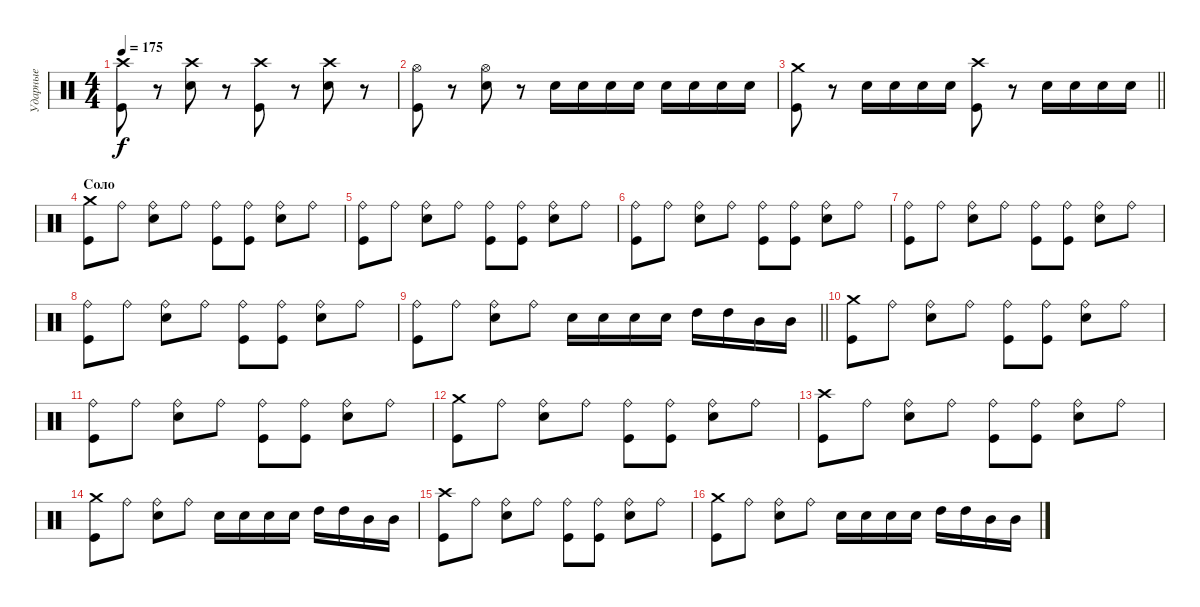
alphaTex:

\track ("Ударные" "Ударные") {instrument percussion}
\staff {score}
\articulation defaults
\ts (4 4)
\tempo 175
\clef neutral
\ks c
("Crash high (hit)" "Kick (hit)").8{dy f} r.8 ("Crash high (hit)" "Electric Snare (hit)").8 r.8 ("Crash high (hit)" "Kick (hit)").8 r.8 ("Crash high (hit)" "Electric Snare (hit)").8 r.8 |
("Hi-Hat (open)" "Kick (hit)").8 r.8 ("Hi-Hat (open)" "Electric Snare (hit)").8 r.8 "Electric Snare (hit)".16 "Electric Snare (hit)".16 "Electric Snare (hit)".16 "Electric Snare (hit)".16 "Electric Snare (hit)".16 "Electric Snare (hit)".16 "Electric Snare (hit)".16 "Electric Snare (hit)".16 |
\barLineRight lightlight
("Crash medium (hit)" "Kick (hit)").8 r.8 "Electric Snare (hit)".16 "Electric Snare (hit)".16 "Electric Snare (hit)".16 "Electric Snare (hit)".16 ("Crash high (hit)" "Kick (hit)").8 r.8 "Electric Snare (hit)".16 "Electric Snare (hit)".16 "Electric Snare (hit)".16 "Electric Snare (hit)".16 |
\section ("" "Соло")
("Crash medium (hit)" "Kick (hit)").8 "Ride (bell)".8 ("Ride (bell)" "Electric Snare (hit)").8 "Ride (bell)".8 ("Ride (bell)" "Kick (hit)").8 ("Ride (bell)" "Kick (hit)").8 ("Ride (bell)" "Electric Snare (hit)").8 "Ride (bell)".8 |
("Ride (bell)" "Kick (hit)").8 "Ride (bell)".8 ("Ride (bell)" "Electric Snare (hit)").8 "Ride (bell)".8 ("Ride (bell)" "Kick (hit)").8 ("Ride (bell)" "Kick (hit)").8 ("Ride (bell)" "Electric Snare (hit)").8 "Ride (bell)".8 |
("Ride (bell)" "Kick (hit)").8 "Ride (bell)".8 ("Ride (bell)" "Electric Snare (hit)").8 "Ride (bell)".8 ("Ride (bell)" "Kick (hit)").8 ("Ride (bell)" "Kick (hit)").8 ("Ride (bell)" "Electric Snare (hit)").8 "Ride (bell)".8 |
("Ride (bell)" "Kick (hit)").8 "Ride (bell)".8 ("Ride (bell)" "Electric Snare (hit)").8 "Ride (bell)".8 ("Ride (bell)" "Kick (hit)").8 ("Ride (bell)" "Kick (hit)").8 ("Ride (bell)" "Electric Snare (hit)").8 "Ride (bell)".8 |
("Ride (bell)" "Kick (hit)").8 "Ride (bell)".8 ("Ride (bell)" "Electric Snare (hit)").8 "Ride (bell)".8 ("Ride (bell)" "Kick (hit)").8 ("Ride (bell)" "Kick (hit)").8 ("Ride (bell)" "Electric Snare (hit)").8 "Ride (bell)".8 |
\barLineRight lightlight
("Ride (bell)" "Kick (hit)").8 "Ride (bell)".8 ("Ride (bell)" "Electric Snare (hit)").8 "Ride (bell)".8 "Electric Snare (hit)".16 "Electric Snare (hit)".16 "Electric Snare (hit)".16 "Electric Snare (hit)".16 "High Tom (hit)".16 "High Tom (hit)".16 "Mid Tom (hit)".16 "Mid Tom (hit)".16 |
\section ("" " ")
("Crash medium (hit)" "Kick (hit)").8 "Ride (bell)".8 ("Ride (bell)" "Electric Snare (hit)").8 "Ride (bell)".8 ("Ride (bell)" "Kick (hit)").8 ("Ride (bell)" "Kick (hit)").8 ("Ride (bell)" "Electric Snare (hit)").8 "Ride (bell)".8 |
("Ride (bell)" "Kick (hit)").8 "Ride (bell)".8 ("Ride (bell)" "Electric Snare (hit)").8 "Ride (bell)".8 ("Ride (bell)" "Kick (hit)").8 ("Ride (bell)" "Kick (hit)").8 ("Ride (bell)" "Electric Snare (hit)").8 "Ride (bell)".8 |
("Crash medium (hit)" "Kick (hit)").8 "Ride (bell)".8 ("Ride (bell)" "Electric Snare (hit)").8 "Ride (bell)".8 ("Ride (bell)" "Kick (hit)").8 ("Ride (bell)" "Kick (hit)").8 ("Ride (bell)" "Electric Snare (hit)").8 "Ride (bell)".8 |
("Crash high (hit)" "Kick (hit)").8 "Ride (bell)".8 ("Ride (bell)" "Electric Snare (hit)").8 "Ride (bell)".8 ("Ride (bell)" "Kick (hit)").8 ("Ride (bell)" "Kick (hit)").8 ("Ride (bell)" "Electric Snare (hit)").8 "Ride (bell)".8 |
("Crash medium (hit)" "Kick (hit)").8 "Ride (bell)".8 ("Ride (bell)" "Electric Snare (hit)").8 "Ride (bell)".8 "Electric Snare (hit)".16 "Electric Snare (hit)".16 "Electric Snare (hit)".16 "Electric Snare (hit)".16 "High Tom (hit)".16 "High Tom (hit)".16 "Mid Tom (hit)".16 "Mid Tom (hit)".16 |
("Crash high (hit)" "Kick (hit)").8 "Ride (bell)".8 ("Ride (bell)" "Electric Snare (hit)").8 "Ride (bell)".8 ("Ride (bell)" "Kick (hit)").8 ("Ride (bell)" "Kick (hit)").8 ("Ride (bell)" "Electric Snare (hit)").8 "Ride (bell)".8 |
("Crash medium (hit)" "Kick (hit)").8 "Ride (bell)".8 ("Ride (bell)" "Electric Snare (hit)").8 "Ride (bell)".8 "Electric Snare (hit)".16 "Electric Snare (hit)".16 "Electric Snare (hit)".16 "Electric Snare (hit)".16 "High Tom (hit)".16 "High Tom (hit)".16 "Mid Tom (hit)".16 "Mid Tom (hit)".16
